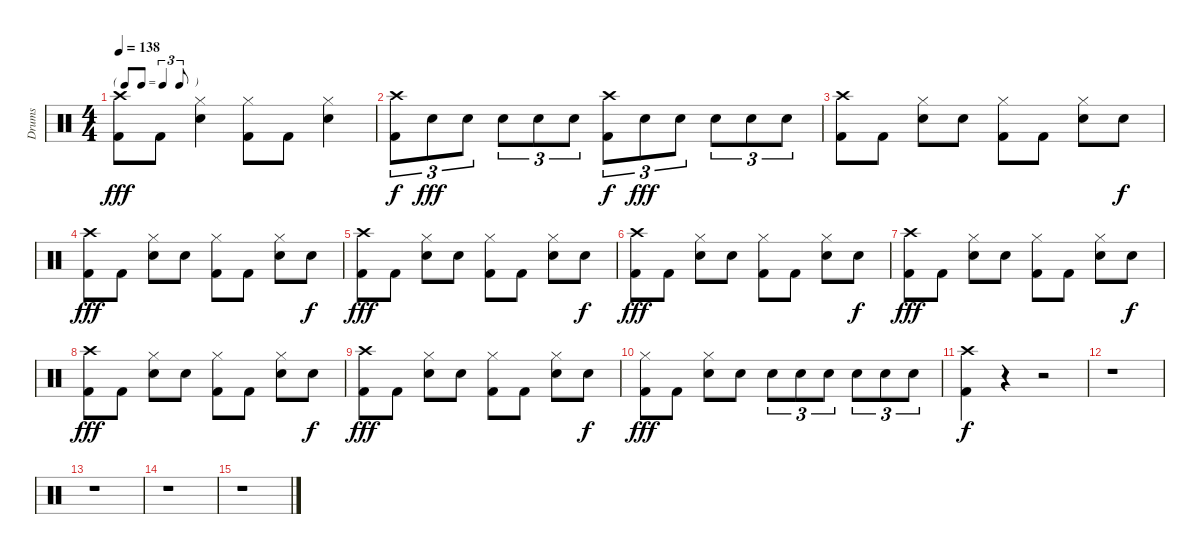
\track ("Drums" "Drums") {instrument percussion}
\staff {score}
\articulation defaults
\ts (4 4)
\tf triplet8th
\tempo 138
\clef neutral
\ks c
("Crash high (hit)" "Kick (hit) 2").8{dy fff} "Kick (hit) 2".8 ("Hi-Hat (closed)" "Snare (hit) 2").4 ("Hi-Hat (closed)" "Kick (hit) 2").8 "Kick (hit) 2".8 ("Hi-Hat (closed)" "Snare (hit) 2").4 |
("Crash high (hit)" "Kick (hit) 2").8{tu (3 2) dy f} "Snare (hit) 2".8{tu (3 2) dy fff} "Snare (hit) 2".8{tu (3 2)} "Snare (hit) 2".8{tu (3 2)} "Snare (hit) 2".8{tu (3 2)} "Snare (hit) 2".8{tu (3 2)} ("Crash high (hit)" "Kick (hit) 2").8{tu (3 2) dy f} "Snare (hit) 2".8{tu (3 2) dy fff} "Snare (hit) 2".8{tu (3 2)} "Snare (hit) 2".8{tu (3 2)} "Snare (hit) 2".8{tu (3 2)} "Snare (hit) 2".8{tu (3 2)} |
("Crash high (hit)" "Kick (hit) 2").8 "Kick (hit) 2".8 ("Hi-Hat (closed)" "Snare (hit) 2").8 "Snare (hit) 2".8 ("Hi-Hat (closed)" "Kick (hit) 2").8 "Kick (hit) 2".8 ("Hi-Hat (closed)" "Snare (hit) 2").8 "Snare (hit) 2".8{dy f} |
("Crash high (hit)" "Kick (hit) 2").8{dy fff} "Kick (hit) 2".8 ("Hi-Hat (closed)" "Snare (hit) 2").8 "Snare (hit) 2".8 ("Hi-Hat (closed)" "Kick (hit) 2").8 "Kick (hit) 2".8 ("Hi-Hat (closed)" "Snare (hit) 2").8 "Snare (hit) 2".8{dy f} |
("Crash high (hit)" "Kick (hit) 2").8{dy fff} "Kick (hit) 2".8 ("Hi-Hat (closed)" "Snare (hit) 2").8 "Snare (hit) 2".8 ("Hi-Hat (closed)" "Kick (hit) 2").8 "Kick (hit) 2".8 ("Hi-Hat (closed)" "Snare (hit) 2").8 "Snare (hit) 2".8{dy f} |
("Crash high (hit)" "Kick (hit) 2").8{dy fff} "Kick (hit) 2".8 ("Hi-Hat (closed)" "Snare (hit) 2").8 "Snare (hit) 2".8 ("Hi-Hat (closed)" "Kick (hit) 2").8 "Kick (hit) 2".8 ("Hi-Hat (closed)" "Snare (hit) 2").8 "Snare (hit) 2".8{dy f} |
("Crash high (hit)" "Kick (hit) 2").8{dy fff} "Kick (hit) 2".8 ("Hi-Hat (closed)" "Snare (hit) 2").8 "Snare (hit) 2".8 ("Hi-Hat (closed)" "Kick (hit) 2").8 "Kick (hit) 2".8 ("Hi-Hat (closed)" "Snare (hit) 2").8 "Snare (hit) 2".8{dy f} |
("Crash high (hit)" "Kick (hit) 2").8{dy fff} "Kick (hit) 2".8 ("Hi-Hat (closed)" "Snare (hit) 2").8 "Snare (hit) 2".8 ("Hi-Hat (closed)" "Kick (hit) 2").8 "Kick (hit) 2".8 ("Hi-Hat (closed)" "Snare (hit) 2").8 "Snare (hit) 2".8{dy f} |
("Crash high (hit)" "Kick (hit) 2").8{dy fff} "Kick (hit) 2".8 ("Hi-Hat (closed)" "Snare (hit) 2").8 "Snare (hit) 2".8 ("Hi-Hat (closed)" "Kick (hit) 2").8 "Kick (hit) 2".8 ("Hi-Hat (closed)" "Snare (hit) 2").8 "Snare (hit) 2".8{dy f} |
("Hi-Hat (closed)" "Kick (hit) 2").8{dy fff} "Kick (hit) 2".8 ("Hi-Hat (closed)" "Snare (hit) 2").8 "Snare (hit) 2".8 "Snare (hit) 2".8{tu (3 2)} "Snare (hit) 2".8{tu (3 2)} "Snare (hit) 2".8{tu (3 2)} "Snare (hit) 2".8{tu (3 2)} "Snare (hit) 2".8{tu (3 2)} "Snare (hit) 2".8{tu (3 2)} |
("Crash high (hit)" "Kick (hit) 2").4{dy f} r.4 r.2 |
r.1 |
r.1 |
r.1 |
r.1
